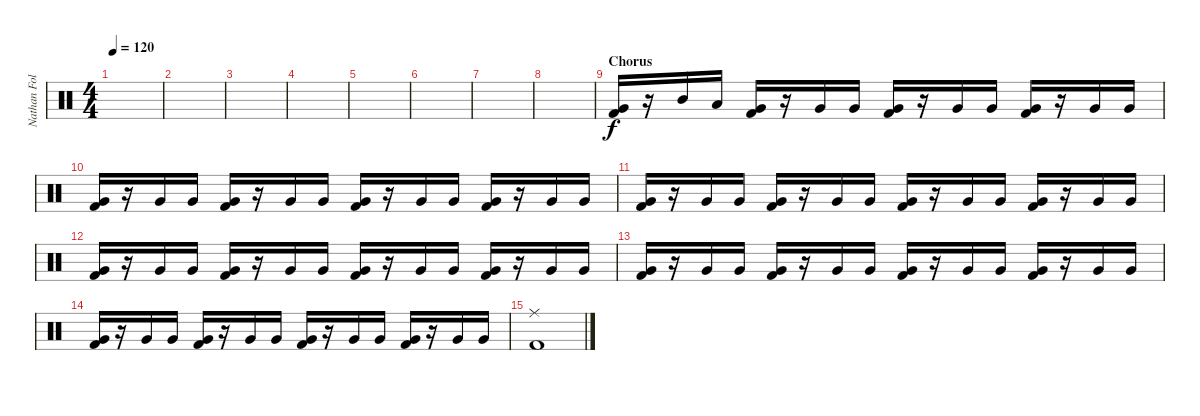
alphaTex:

\track ("Nathan Followill - Drums" "Nathan Fol") {instrument percussion}
\staff {score}
\articulation defaults
\ts (4 4)
\tempo 120
\clef neutral
\ks c
|
|
|
|
|
|
|
|
\section ("" "Chorus")
("Very Low Tom (hit)" "Kick (hit) 2").16 r.16 "Mid Tom (hit)".16 "Low Tom (hit)".16 ("Very Low Tom (hit)" "Kick (hit) 2").16 r.16 "Very Low Tom (hit)".16 "Very Low Tom (hit)".16 ("Very Low Tom (hit)" "Kick (hit) 2").16 r.16 "Very Low Tom (hit)".16 "Very Low Tom (hit)".16 ("Very Low Tom (hit)" "Kick (hit) 2").16 r.16 "Very Low Tom (hit)".16 "Very Low Tom (hit)".16 |
("Very Low Tom (hit)" "Kick (hit) 2").16 r.16 "Very Low Tom (hit)".16 "Very Low Tom (hit)".16 ("Very Low Tom (hit)" "Kick (hit) 2").16 r.16 "Very Low Tom (hit)".16 "Very Low Tom (hit)".16 ("Very Low Tom (hit)" "Kick (hit) 2").16 r.16 "Very Low Tom (hit)".16 "Very Low Tom (hit)".16 ("Very Low Tom (hit)" "Kick (hit) 2").16 r.16 "Very Low Tom (hit)".16 "Very Low Tom (hit)".16 |
("Very Low Tom (hit)" "Kick (hit) 2").16 r.16 "Very Low Tom (hit)".16 "Very Low Tom (hit)".16 ("Very Low Tom (hit)" "Kick (hit) 2").16 r.16 "Very Low Tom (hit)".16 "Very Low Tom (hit)".16 ("Very Low Tom (hit)" "Kick (hit) 2").16 r.16 "Very Low Tom (hit)".16 "Very Low Tom (hit)".16 ("Very Low Tom (hit)" "Kick (hit) 2").16 r.16 "Very Low Tom (hit)".16 "Very Low Tom (hit)".16 |
("Very Low Tom (hit)" "Kick (hit) 2").16 r.16 "Very Low Tom (hit)".16 "Very Low Tom (hit)".16 ("Very Low Tom (hit)" "Kick (hit) 2").16 r.16 "Very Low Tom (hit)".16 "Very Low Tom (hit)".16 ("Very Low Tom (hit)" "Kick (hit) 2").16 r.16 "Very Low Tom (hit)".16 "Very Low Tom (hit)".16 ("Very Low Tom (hit)" "Kick (hit) 2").16 r.16 "Very Low Tom (hit)".16 "Very Low Tom (hit)".16 |
("Very Low Tom (hit)" "Kick (hit) 2").16 r.16 "Very Low Tom (hit)".16 "Very Low Tom (hit)".16 ("Very Low Tom (hit)" "Kick (hit) 2").16 r.16 "Very Low Tom (hit)".16 "Very Low Tom (hit)".16 ("Very Low Tom (hit)" "Kick (hit) 2").16 r.16 "Very Low Tom (hit)".16 "Very Low Tom (hit)".16 ("Very Low Tom (hit)" "Kick (hit) 2").16 r.16 "Very Low Tom (hit)".16 "Very Low Tom (hit)".16 |
("Very Low Tom (hit)" "Kick (hit) 2").16 r.16 "Very Low Tom (hit)".16 "Very Low Tom (hit)".16 ("Very Low Tom (hit)" "Kick (hit) 2").16 r.16 "Very Low Tom (hit)".16 "Very Low Tom (hit)".16 ("Very Low Tom (hit)" "Kick (hit) 2").16 r.16 "Very Low Tom (hit)".16 "Very Low Tom (hit)".16 ("Very Low Tom (hit)" "Kick (hit) 2").16 r.16 "Very Low Tom (hit)".16 "Very Low Tom (hit)".16 |
("Ride (middle)" "Kick (hit) 2").1
